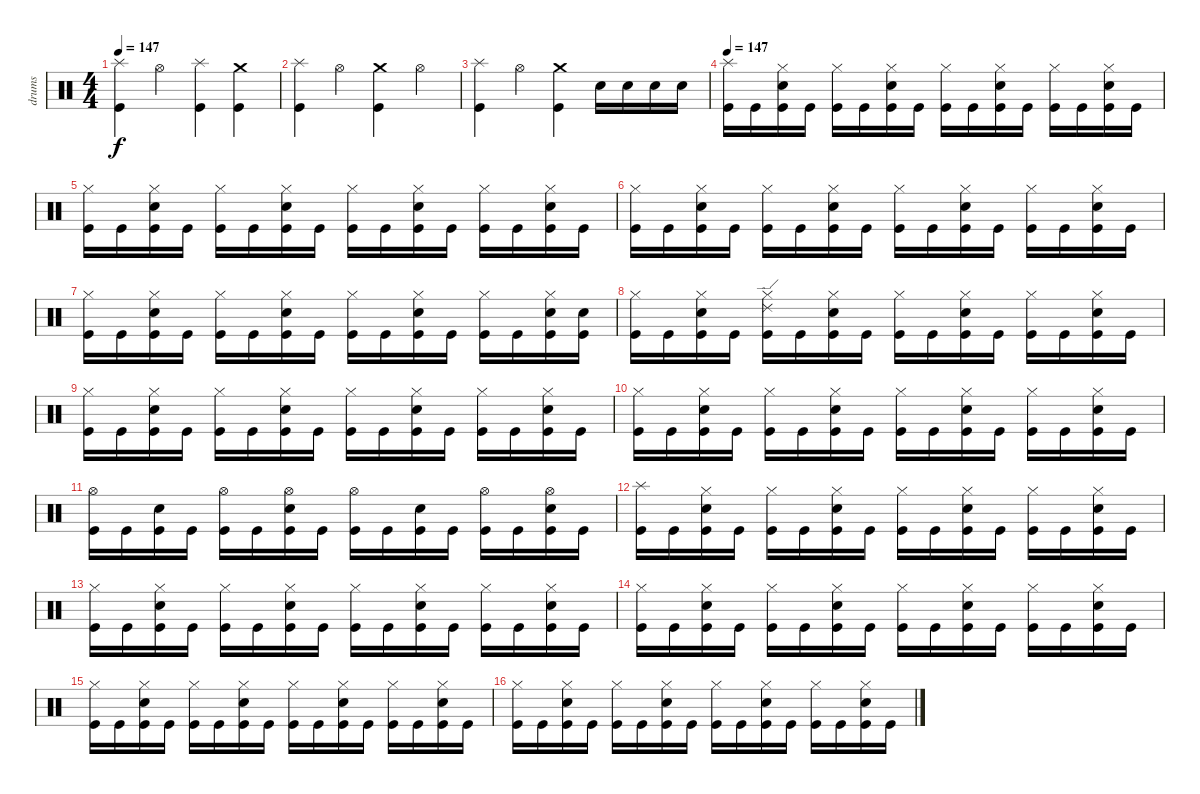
\track ("drums" "drums") {instrument percussion}
\staff {score}
\articulation defaults
\ts (4 4)
\tempo 147
\clef neutral
\ks c
("Splash (hit)" "Kick (hit)").4{dy f} "Hi-Hat (open)".4 ("Kick (hit)" "Splash (hit)").4 ("Kick (hit)" "Crash medium (hit)").4 |
("Splash (hit)" "Kick (hit)").4 "Hi-Hat (open)".4 ("Crash medium (hit)" "Kick (hit)").4 "Hi-Hat (open)".4 |
("Splash (hit)" "Kick (hit)").4 "Hi-Hat (open)".4 ("Kick (hit)" "Crash medium (hit)").4 "Snare (hit) 2".16 "Snare (hit) 2".16 "Snare (hit) 2".16 "Snare (hit) 2".16 |
\tempo 147
("Kick (hit)" "Splash (hit)").16 "Kick (hit)".16 ("Hi-Hat (closed)" "Snare (hit) 2" "Kick (hit)").16 "Kick (hit)".16 ("Kick (hit)" "Hi-Hat (closed)").16 "Kick (hit)".16 ("Kick (hit)" "Snare (hit) 2" "Hi-Hat (closed)").16 "Kick (hit)".16 ("Hi-Hat (closed)" "Kick (hit)").16 "Kick (hit)".16 ("Hi-Hat (closed)" "Snare (hit) 2" "Kick (hit)").16 "Kick (hit)".16 ("Kick (hit)" "Hi-Hat (closed)").16 "Kick (hit)".16 ("Hi-Hat (closed)" "Snare (hit) 2" "Kick (hit)").16 "Kick (hit)".16 |
("Hi-Hat (closed)" "Kick (hit)").16 "Kick (hit)".16 ("Snare (hit) 2" "Kick (hit)" "Hi-Hat (closed)").16 "Kick (hit)".16 ("Hi-Hat (closed)" "Kick (hit)").16 "Kick (hit)".16 ("Snare (hit) 2" "Hi-Hat (closed)" "Kick (hit)").16 "Kick (hit)".16 ("Hi-Hat (closed)" "Kick (hit)").16 "Kick (hit)".16 ("Hi-Hat (closed)" "Kick (hit)" "Snare (hit) 2").16 "Kick (hit)".16 ("Kick (hit)" "Hi-Hat (closed)").16 "Kick (hit)".16 ("Kick (hit)" "Hi-Hat (closed)" "Snare (hit) 2").16 "Kick (hit)".16 |
("Kick (hit)" "Hi-Hat (closed)").16 "Kick (hit)".16 ("Snare (hit) 2" "Kick (hit)" "Hi-Hat (closed)").16 "Kick (hit)".16 ("Kick (hit)" "Hi-Hat (closed)").16 "Kick (hit)".16 ("Snare (hit) 2" "Hi-Hat (closed)" "Kick (hit)").16 "Kick (hit)".16 ("Hi-Hat (closed)" "Kick (hit)").16 "Kick (hit)".16 ("Hi-Hat (closed)" "Kick (hit)" "Snare (hit) 2").16 "Kick (hit)".16 ("Kick (hit)" "Hi-Hat (closed)").16 "Kick (hit)".16 ("Hi-Hat (closed)" "Kick (hit)" "Snare (hit) 2").16 "Kick (hit)".16 |
("Kick (hit)" "Hi-Hat (closed)").16 "Kick (hit)".16 ("Snare (hit) 2" "Hi-Hat (closed)" "Kick (hit)").16 "Kick (hit)".16 ("Kick (hit)" "Hi-Hat (closed)").16 "Kick (hit)".16 ("Snare (hit) 2" "Kick (hit)" "Hi-Hat (closed)").16 "Kick (hit)".16 ("Hi-Hat (closed)" "Kick (hit)").16 "Kick (hit)".16 ("Snare (hit) 2" "Hi-Hat (closed)" "Kick (hit)").16 "Kick (hit)".16 ("Hi-Hat (closed)" "Kick (hit)").16 "Kick (hit)".16 ("Snare (hit) 2" "Kick (hit)" "Hi-Hat (closed)").16 ("Snare (hit) 2" "Kick (hit)").16 |
("Hi-Hat (closed)" "Kick (hit)").16 "Kick (hit)".16 ("Kick (hit)" "Snare (hit) 2" "Hi-Hat (closed)").16 "Kick (hit)".16 ("Ride (edge) 2" "Hi-Hat (closed)" "Kick (hit)").16 "Kick (hit)".16 ("Kick (hit)" "Snare (hit) 2" "Hi-Hat (closed)").16 "Kick (hit)".16 ("Hi-Hat (closed)" "Kick (hit)").16 "Kick (hit)".16 ("Kick (hit)" "Hi-Hat (closed)" "Snare (hit) 2").16 "Kick (hit)".16 ("Kick (hit)" "Hi-Hat (closed)").16 "Kick (hit)".16 ("Kick (hit)" "Hi-Hat (closed)" "Snare (hit) 2").16 "Kick (hit)".16 |
("Kick (hit)" "Hi-Hat (closed)").16 "Kick (hit)".16 ("Hi-Hat (closed)" "Snare (hit) 2" "Kick (hit)").16 "Kick (hit)".16 ("Kick (hit)" "Hi-Hat (closed)").16 "Kick (hit)".16 ("Hi-Hat (closed)" "Snare (hit) 2" "Kick (hit)").16 "Kick (hit)".16 ("Kick (hit)" "Hi-Hat (closed)").16 "Kick (hit)".16 ("Kick (hit)" "Hi-Hat (closed)" "Snare (hit) 2").16 "Kick (hit)".16 ("Kick (hit)" "Hi-Hat (closed)").16 "Kick (hit)".16 ("Hi-Hat (closed)" "Kick (hit)" "Snare (hit) 2").16 "Kick (hit)".16 |
("Kick (hit)" "Hi-Hat (closed)").16 "Kick (hit)".16 ("Hi-Hat (closed)" "Snare (hit) 2" "Kick (hit)").16 "Kick (hit)".16 ("Kick (hit)" "Hi-Hat (closed)").16 "Kick (hit)".16 ("Kick (hit)" "Snare (hit) 2" "Hi-Hat (closed)").16 "Kick (hit)".16 ("Kick (hit)" "Hi-Hat (closed)").16 "Kick (hit)".16 ("Snare (hit) 2" "Hi-Hat (closed)" "Kick (hit)").16 "Kick (hit)".16 ("Kick (hit)" "Hi-Hat (closed)").16 "Kick (hit)".16 ("Hi-Hat (closed)" "Snare (hit) 2" "Kick (hit)").16 "Kick (hit)".16 |
("Hi-Hat (open)" "Kick (hit)").16 "Kick (hit)".16 ("Kick (hit)" "Snare (hit) 2").16 "Kick (hit)".16 ("Hi-Hat (open)" "Kick (hit)").16 "Kick (hit)".16 ("Kick (hit)" "Snare (hit) 2" "Hi-Hat (open)").16 "Kick (hit)".16 ("Hi-Hat (open)" "Kick (hit)").16 "Kick (hit)".16 ("Kick (hit)" "Snare (hit) 2").16 "Kick (hit)".16 ("Hi-Hat (open)" "Kick (hit)").16 "Kick (hit)".16 ("Kick (hit)" "Snare (hit) 2" "Hi-Hat (open)").16 "Kick (hit)".16 |
("Kick (hit)" "Splash (hit)").16 "Kick (hit)".16 ("Hi-Hat (closed)" "Snare (hit) 2" "Kick (hit)").16 "Kick (hit)".16 ("Hi-Hat (closed)" "Kick (hit)").16 "Kick (hit)".16 ("Hi-Hat (closed)" "Kick (hit)" "Snare (hit) 2").16 "Kick (hit)".16 ("Kick (hit)" "Hi-Hat (closed)").16 "Kick (hit)".16 ("Kick (hit)" "Hi-Hat (closed)" "Snare (hit) 2").16 "Kick (hit)".16 ("Hi-Hat (closed)" "Kick (hit)").16 "Kick (hit)".16 ("Kick (hit)" "Hi-Hat (closed)" "Snare (hit) 2").16 "Kick (hit)".16 |
("Kick (hit)" "Hi-Hat (closed)").16 "Kick (hit)".16 ("Snare (hit) 2" "Kick (hit)" "Hi-Hat (closed)").16 "Kick (hit)".16 ("Kick (hit)" "Hi-Hat (closed)").16 "Kick (hit)".16 ("Kick (hit)" "Snare (hit) 2" "Hi-Hat (closed)").16 "Kick (hit)".16 ("Hi-Hat (closed)" "Kick (hit)").16 "Kick (hit)".16 ("Kick (hit)" "Hi-Hat (closed)" "Snare (hit) 2").16 "Kick (hit)".16 ("Hi-Hat (closed)" "Kick (hit)").16 "Kick (hit)".16 ("Kick (hit)" "Hi-Hat (closed)" "Snare (hit) 2").16 "Kick (hit)".16 |
("Kick (hit)" "Hi-Hat (closed)").16 "Kick (hit)".16 ("Hi-Hat (closed)" "Snare (hit) 2" "Kick (hit)").16 "Kick (hit)".16 ("Kick (hit)" "Hi-Hat (closed)").16 "Kick (hit)".16 ("Kick (hit)" "Hi-Hat (closed)" "Snare (hit) 2").16 "Kick (hit)".16 ("Hi-Hat (closed)" "Kick (hit)").16 "Kick (hit)".16 ("Hi-Hat (closed)" "Kick (hit)" "Snare (hit) 2").16 "Kick (hit)".16 ("Hi-Hat (closed)" "Kick (hit)").16 "Kick (hit)".16 ("Kick (hit)" "Hi-Hat (closed)" "Snare (hit) 2").16 "Kick (hit)".16 |
("Kick (hit)" "Hi-Hat (closed)").16 "Kick (hit)".16 ("Snare (hit) 2" "Hi-Hat (closed)" "Kick (hit)").16 "Kick (hit)".16 ("Kick (hit)" "Hi-Hat (closed)").16 "Kick (hit)".16 ("Hi-Hat (closed)" "Kick (hit)" "Snare (hit) 2").16 "Kick (hit)".16 ("Kick (hit)" "Hi-Hat (closed)").16 "Kick (hit)".16 ("Hi-Hat (closed)" "Kick (hit)" "Snare (hit) 2").16 "Kick (hit)".16 ("Kick (hit)" "Hi-Hat (closed)").16 "Kick (hit)".16 ("Snare (hit) 2" "Kick (hit)" "Hi-Hat (closed)").16 "Kick (hit)".16 |
("Kick (hit)" "Hi-Hat (closed)").16 "Kick (hit)".16 ("Hi-Hat (closed)" "Snare (hit) 2" "Kick (hit)").16 "Kick (hit)".16 ("Hi-Hat (closed)" "Kick (hit)").16 "Kick (hit)".16 ("Snare (hit) 2" "Kick (hit)" "Hi-Hat (closed)").16 "Kick (hit)".16 ("Kick (hit)" "Hi-Hat (closed)").16 "Kick (hit)".16 ("Kick (hit)" "Snare (hit) 2" "Hi-Hat (closed)").16 "Kick (hit)".16 ("Kick (hit)" "Hi-Hat (closed)").16 "Kick (hit)".16 ("Kick (hit)" "Hi-Hat (closed)" "Snare (hit) 2").16 "Kick (hit)".16
